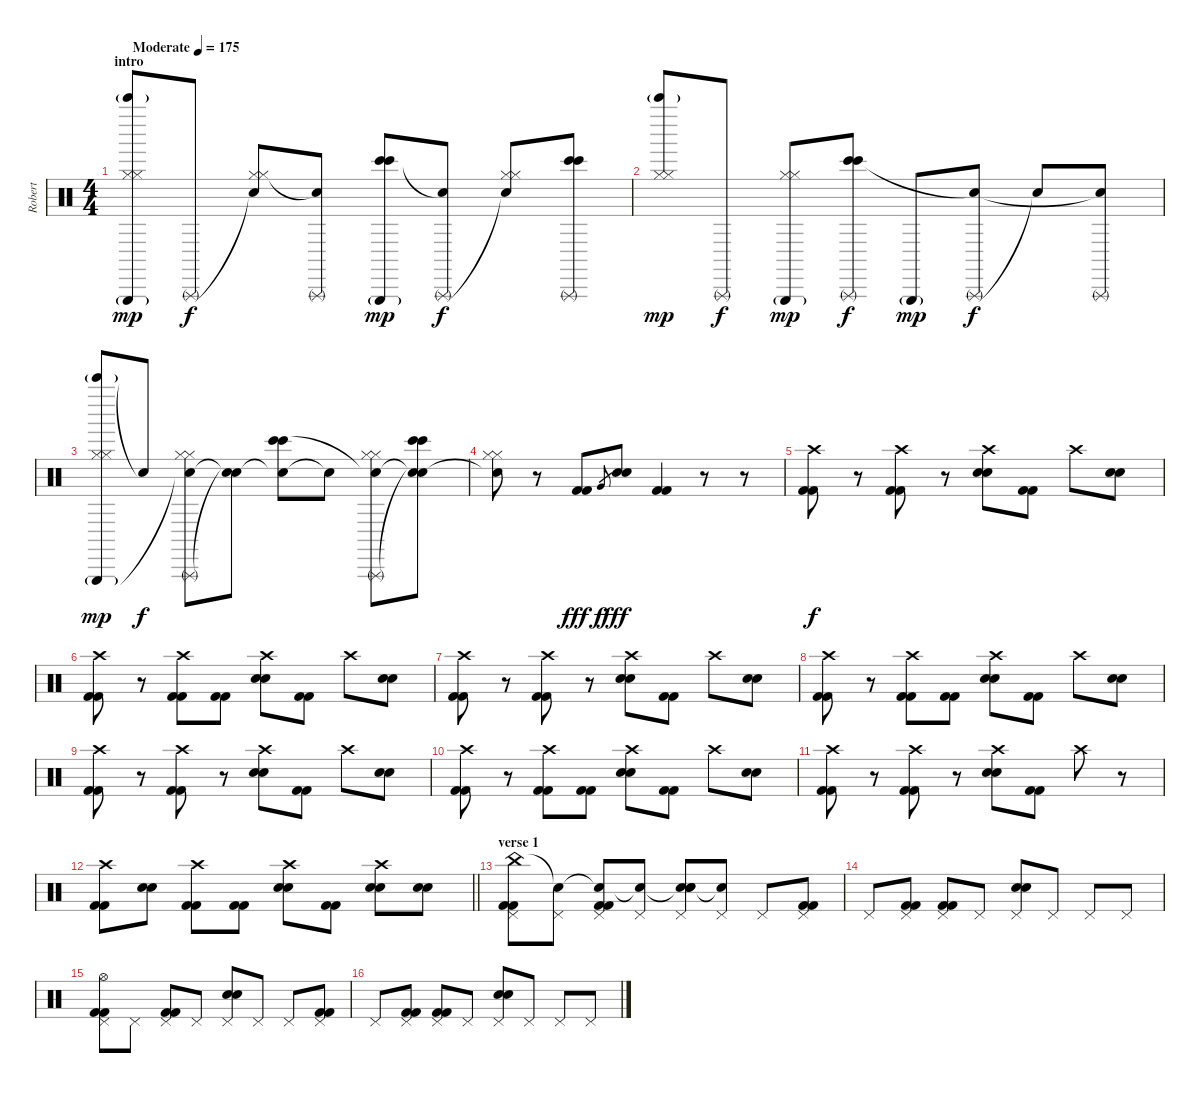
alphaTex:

\track ("Robert" "Robert") {instrument percussion}
\staff {score}
\articulation defaults
\ts (4 4)
\section ("" "intro")
\tempo (175 "Moderate")
\clef neutral
\ks c
("Triangle (hit)"{g} "Bell Tree (hit)"{g} "Hi-Hat (closed)" "Hi-Hat (closed)").8{dy mp volume 9} "Triangle (rnute)".8{dy f} ("Snare (hit)"{t} "Hi-Hat (closed)" "Hi-Hat (closed)").8 ("Triangle (rnute)" "Snare (hit)"{t}).8 ("Triangle (hit)"{g} "Bongo High (hit)" "Bongo High (hit)").8{dy mp} ("Triangle (rnute)" "Snare (hit)"{t}).8{dy f} ("Snare (hit)"{t} "Hi-Hat (closed)" "Hi-Hat (closed)").8 ("Triangle (rnute)" "Bongo High (hit)" "Bongo High (hit)").8 |
("Bell Tree (hit)"{g} "Hi-Hat (closed)" "Hi-Hat (closed)").8{dy mp} "Triangle (rnute)".8{dy f} ("Triangle (hit)"{g} "Hi-Hat (closed)" "Hi-Hat (closed)").8{dy mp} ("Triangle (rnute)" "Bongo High (hit)" "Bongo High (hit)").8{dy f} "Triangle (hit)"{g}.8{dy mp} ("Triangle (rnute)" "Snare (hit)"{t}).8{dy f} "Snare (hit)"{t}.8 ("Triangle (rnute)" "Snare (hit)"{t}).8 |
("Bell Tree (hit)"{g} "Triangle (hit)"{g} "Hi-Hat (closed)" "Hi-Hat (closed)").8{dy mp} "Snare (hit)"{t}.8{dy f} ("Triangle (rnute)" "Snare (hit)"{t} "Hi-Hat (closed)" "Hi-Hat (closed)").8 ("Snare (hit)"{t} "Snare (hit)"{t}).8 ("Snare (hit)"{t} "Bongo High (hit)" "Bongo High (hit)").8 "Snare (hit)"{t}.8 ("Triangle (rnute)" "Snare (hit)"{t} "Hi-Hat (closed)" "Hi-Hat (closed)").8 ("Snare (hit)"{t} "Snare (hit)"{t} "Bongo High (hit)" "Bongo High (hit)").8 |
("Snare (hit)"{t} "Hi-Hat (closed)" "Hi-Hat (closed)").8 r.8 ("Kick (hit) 2" "Kick (hit) 2").8{dy fff volume 16} "Very Low Tom (hit)".8{gr dy f} ("Electric Snare (hit)" "Electric Snare (hit)").8{dy fff} ("Kick (hit) 2" "Kick (hit) 2").4 r.8 r.8 |
("Crash high (hit)" "Kick (hit) 2" "Kick (hit) 2").8{dy f} r.8 ("Crash high (hit)" "Kick (hit) 2" "Kick (hit) 2").8 r.8 ("Crash high (hit)" "Electric Snare (hit)" "Electric Snare (hit)").8 ("Kick (hit) 2" "Kick (hit) 2").8 "Crash high (hit)".8 ("Electric Snare (hit)" "Electric Snare (hit)").8 |
("Crash high (hit)" "Kick (hit) 2" "Kick (hit) 2").8 r.8 ("Crash high (hit)" "Kick (hit) 2" "Kick (hit) 2").8 ("Kick (hit) 2" "Kick (hit) 2").8 ("Crash high (hit)" "Electric Snare (hit)" "Electric Snare (hit)").8 ("Kick (hit) 2" "Kick (hit) 2").8 "Crash high (hit)".8 ("Electric Snare (hit)" "Electric Snare (hit)").8 |
("Crash high (hit)" "Kick (hit) 2" "Kick (hit) 2").8 r.8 ("Crash high (hit)" "Kick (hit) 2" "Kick (hit) 2").8 r.8 ("Crash high (hit)" "Electric Snare (hit)" "Electric Snare (hit)").8 ("Kick (hit) 2" "Kick (hit) 2").8 "Crash high (hit)".8 ("Electric Snare (hit)" "Electric Snare (hit)").8 |
("Crash high (hit)" "Kick (hit) 2" "Kick (hit) 2").8 r.8 ("Crash high (hit)" "Kick (hit) 2" "Kick (hit) 2").8 ("Kick (hit) 2" "Kick (hit) 2").8 ("Crash high (hit)" "Electric Snare (hit)" "Electric Snare (hit)").8 ("Kick (hit) 2" "Kick (hit) 2").8 "Crash high (hit)".8 ("Electric Snare (hit)" "Electric Snare (hit)").8 |
("Crash high (hit)" "Kick (hit) 2" "Kick (hit) 2").8 r.8 ("Crash high (hit)" "Kick (hit) 2" "Kick (hit) 2").8 r.8 ("Crash high (hit)" "Electric Snare (hit)" "Electric Snare (hit)").8 ("Kick (hit) 2" "Kick (hit) 2").8 "Crash high (hit)".8 ("Electric Snare (hit)" "Electric Snare (hit)").8 |
("Crash high (hit)" "Kick (hit) 2" "Kick (hit) 2").8 r.8 ("Crash high (hit)" "Kick (hit) 2" "Kick (hit) 2").8 ("Kick (hit) 2" "Kick (hit) 2").8 ("Crash high (hit)" "Electric Snare (hit)" "Electric Snare (hit)").8 ("Kick (hit) 2" "Kick (hit) 2").8 "Crash high (hit)".8 ("Electric Snare (hit)" "Electric Snare (hit)").8 |
("Crash high (hit)" "Kick (hit) 2" "Kick (hit) 2").8 r.8 ("Crash high (hit)" "Kick (hit) 2" "Kick (hit) 2").8 r.8 ("Crash high (hit)" "Electric Snare (hit)" "Electric Snare (hit)").8 ("Kick (hit) 2" "Kick (hit) 2").8 "Crash high (hit)".8 r.8 |
\barLineRight lightlight
("Crash high (hit)" "Kick (hit) 2" "Kick (hit) 2").8 ("Electric Snare (hit)" "Electric Snare (hit)").8 ("Crash high (hit)" "Kick (hit) 2" "Kick (hit) 2").8 ("Kick (hit) 2" "Kick (hit) 2").8 ("Crash high (hit)" "Electric Snare (hit)" "Electric Snare (hit)").8 ("Kick (hit) 2" "Kick (hit) 2").8 ("Crash high (hit)" "Electric Snare (hit)" "Electric Snare (hit)").8 ("Electric Snare (hit)" "Electric Snare (hit)").8 |
\section ("" "verse 1")
("Pedal Hi-Hat (hit)" "China (hit)" "Kick (hit) 2" "Kick (hit) 2").8 ("Pedal Hi-Hat (hit)" "Snare (hit)"{t}).8 ("Pedal Hi-Hat (hit)" "Snare (hit)"{t} "Kick (hit) 2" "Kick (hit) 2").8 ("Pedal Hi-Hat (hit)" "Snare (hit)"{t}).8 ("Pedal Hi-Hat (hit)" "Snare (hit)"{t} "Electric Snare (hit)" "Electric Snare (hit)").8 ("Pedal Hi-Hat (hit)" "Snare (hit)"{t}).8 "Pedal Hi-Hat (hit)".8 ("Pedal Hi-Hat (hit)" "Kick (hit) 2" "Kick (hit) 2").8 |
"Pedal Hi-Hat (hit)".8 ("Pedal Hi-Hat (hit)" "Kick (hit) 2" "Kick (hit) 2").8 ("Pedal Hi-Hat (hit)" "Kick (hit) 2" "Kick (hit) 2").8 "Pedal Hi-Hat (hit)".8 ("Pedal Hi-Hat (hit)" "Electric Snare (hit)" "Electric Snare (hit)").8 "Pedal Hi-Hat (hit)".8 "Pedal Hi-Hat (hit)".8 "Pedal Hi-Hat (hit)".8 |
("Pedal Hi-Hat (hit)" "Hi-Hat (open)" "Kick (hit) 2" "Kick (hit) 2").8 "Pedal Hi-Hat (hit)".8 ("Pedal Hi-Hat (hit)" "Kick (hit) 2" "Kick (hit) 2").8 "Pedal Hi-Hat (hit)".8 ("Pedal Hi-Hat (hit)" "Electric Snare (hit)" "Electric Snare (hit)").8 "Pedal Hi-Hat (hit)".8 "Pedal Hi-Hat (hit)".8 ("Pedal Hi-Hat (hit)" "Kick (hit) 2" "Kick (hit) 2").8 |
"Pedal Hi-Hat (hit)".8 ("Pedal Hi-Hat (hit)" "Kick (hit) 2" "Kick (hit) 2").8 ("Pedal Hi-Hat (hit)" "Kick (hit) 2" "Kick (hit) 2").8 "Pedal Hi-Hat (hit)".8 ("Pedal Hi-Hat (hit)" "Electric Snare (hit)" "Electric Snare (hit)").8 "Pedal Hi-Hat (hit)".8 "Pedal Hi-Hat (hit)".8 "Pedal Hi-Hat (hit)".8
